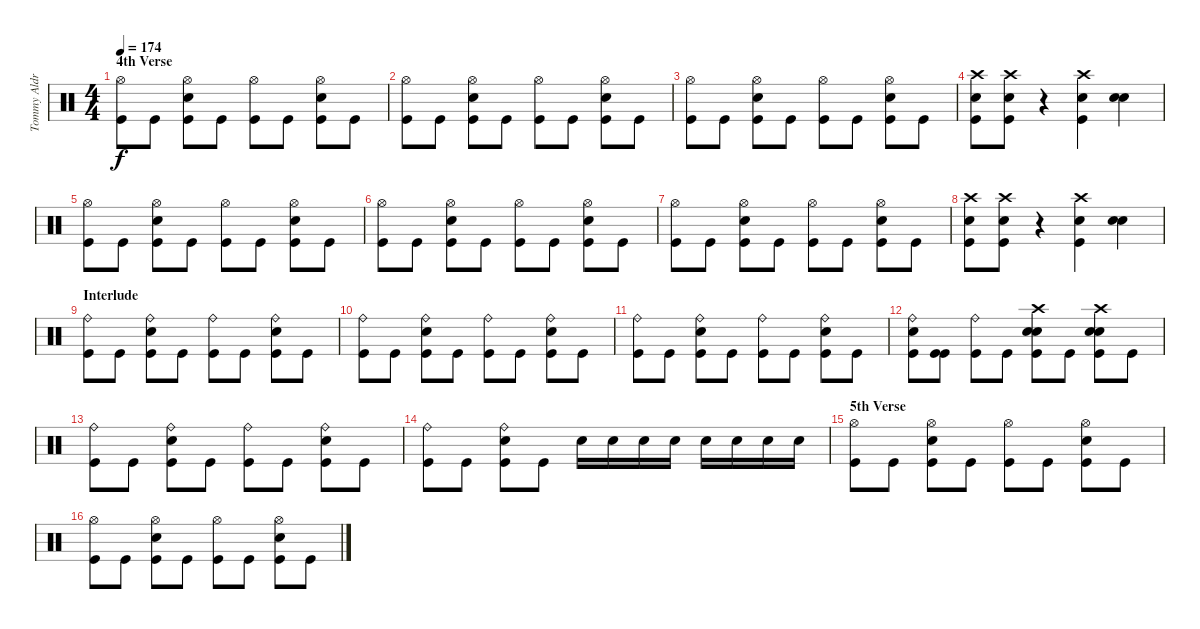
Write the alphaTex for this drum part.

\track ("Tommy Aldrige" "Tommy Aldr") {instrument percussion}
\staff {score}
\articulation defaults
\ts (4 4)
\section ("" "4th Verse")
\tempo 174
\clef neutral
\ks c
("Hi-Hat (open)" "Kick (hit)").8{dy f} "Kick (hit)".8 ("Hi-Hat (open)" "Kick (hit)" "Snare (hit) 2").8 "Kick (hit)".8 ("Hi-Hat (open)" "Kick (hit)").8 "Kick (hit)".8 ("Hi-Hat (open)" "Kick (hit)" "Snare (hit) 2").8 "Kick (hit)".8 |
("Hi-Hat (open)" "Kick (hit)").8 "Kick (hit)".8 ("Hi-Hat (open)" "Kick (hit)" "Snare (hit) 2").8 "Kick (hit)".8 ("Hi-Hat (open)" "Kick (hit)").8 "Kick (hit)".8 ("Hi-Hat (open)" "Kick (hit)" "Snare (hit) 2").8 "Kick (hit)".8 |
("Hi-Hat (open)" "Kick (hit)").8 "Kick (hit)".8 ("Hi-Hat (open)" "Kick (hit)" "Snare (hit) 2").8 "Kick (hit)".8 ("Hi-Hat (open)" "Kick (hit)").8 "Kick (hit)".8 ("Hi-Hat (open)" "Kick (hit)" "Snare (hit) 2").8 "Kick (hit)".8 |
("Crash high (hit)" "Kick (hit)" "Snare (hit) 2").8 ("Crash high (hit)" "Kick (hit)" "Snare (hit) 2").8 r.4 ("Crash high (hit)" "Kick (hit)" "Snare (hit) 2").4 ("Snare (hit) 2" "Snare (hit) 2").4{bu 240} |
("Hi-Hat (open)" "Kick (hit)").8 "Kick (hit)".8 ("Hi-Hat (open)" "Kick (hit)" "Snare (hit) 2").8 "Kick (hit)".8 ("Hi-Hat (open)" "Kick (hit)").8 "Kick (hit)".8 ("Hi-Hat (open)" "Kick (hit)" "Snare (hit) 2").8 "Kick (hit)".8 |
("Hi-Hat (open)" "Kick (hit)").8 "Kick (hit)".8 ("Hi-Hat (open)" "Kick (hit)" "Snare (hit) 2").8 "Kick (hit)".8 ("Hi-Hat (open)" "Kick (hit)").8 "Kick (hit)".8 ("Hi-Hat (open)" "Kick (hit)" "Snare (hit) 2").8 "Kick (hit)".8 |
("Hi-Hat (open)" "Kick (hit)").8 "Kick (hit)".8 ("Hi-Hat (open)" "Kick (hit)" "Snare (hit) 2").8 "Kick (hit)".8 ("Hi-Hat (open)" "Kick (hit)").8 "Kick (hit)".8 ("Hi-Hat (open)" "Kick (hit)" "Snare (hit) 2").8 "Kick (hit)".8 |
("Crash high (hit)" "Kick (hit)" "Snare (hit) 2").8 ("Crash high (hit)" "Kick (hit)" "Snare (hit) 2").8 r.4 ("Crash high (hit)" "Kick (hit)" "Snare (hit) 2").4 ("Snare (hit) 2" "Snare (hit) 2").4{bu 240} |
\section ("" "Interlude")
("Ride (bell)" "Kick (hit)").8 "Kick (hit)".8 ("Ride (bell)" "Kick (hit)" "Snare (hit) 2").8 "Kick (hit)".8 ("Ride (bell)" "Kick (hit)").8 "Kick (hit)".8 ("Ride (bell)" "Kick (hit)" "Snare (hit) 2").8 "Kick (hit)".8 |
("Ride (bell)" "Kick (hit)").8 "Kick (hit)".8 ("Ride (bell)" "Kick (hit)" "Snare (hit) 2").8 "Kick (hit)".8 ("Ride (bell)" "Kick (hit)").8 "Kick (hit)".8 ("Ride (bell)" "Kick (hit)" "Snare (hit) 2").8 "Kick (hit)".8 |
("Ride (bell)" "Kick (hit)").8 "Kick (hit)".8 ("Ride (bell)" "Kick (hit)" "Snare (hit) 2").8 "Kick (hit)".8 ("Ride (bell)" "Kick (hit)").8 "Kick (hit)".8 ("Ride (bell)" "Kick (hit)" "Snare (hit) 2").8 "Kick (hit)".8 |
("Ride (bell)" "Kick (hit)" "Snare (hit) 2").8 ("Kick (hit)" "Kick (hit)").8 ("Ride (bell)" "Kick (hit)").8 "Kick (hit)".8 ("Crash high (hit)" "Snare (hit) 2" "Snare (hit) 2" "Kick (hit)").8 "Kick (hit)".8 ("Crash high (hit)" "Snare (hit) 2" "Snare (hit) 2" "Kick (hit)").8 "Kick (hit)".8 |
("Ride (bell)" "Kick (hit)").8 "Kick (hit)".8 ("Ride (bell)" "Kick (hit)" "Snare (hit) 2").8 "Kick (hit)".8 ("Ride (bell)" "Kick (hit)").8 "Kick (hit)".8 ("Ride (bell)" "Kick (hit)" "Snare (hit) 2").8 "Kick (hit)".8 |
("Ride (bell)" "Kick (hit)").8 "Kick (hit)".8 ("Ride (bell)" "Kick (hit)" "Snare (hit) 2").8 "Kick (hit)".8 "Snare (hit) 2".16 "Snare (hit) 2".16 "Snare (hit) 2".16 "Snare (hit) 2".16 "Snare (hit) 2".16 "Snare (hit) 2".16 "Snare (hit) 2".16 "Snare (hit) 2".16 |
\section ("" "5th Verse")
("Hi-Hat (open)" "Kick (hit)").8 "Kick (hit)".8 ("Hi-Hat (open)" "Kick (hit)" "Snare (hit) 2").8 "Kick (hit)".8 ("Hi-Hat (open)" "Kick (hit)").8 "Kick (hit)".8 ("Hi-Hat (open)" "Kick (hit)" "Snare (hit) 2").8 "Kick (hit)".8 |
("Hi-Hat (open)" "Kick (hit)").8 "Kick (hit)".8 ("Hi-Hat (open)" "Kick (hit)" "Snare (hit) 2").8 "Kick (hit)".8 ("Hi-Hat (open)" "Kick (hit)").8 "Kick (hit)".8 ("Hi-Hat (open)" "Kick (hit)" "Snare (hit) 2").8 "Kick (hit)".8
